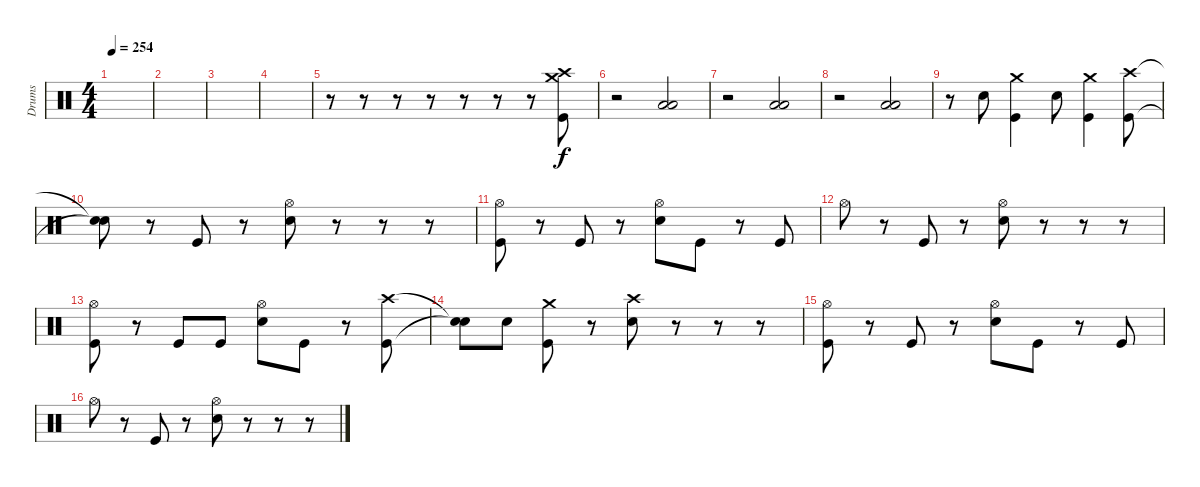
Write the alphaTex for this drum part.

\track ("Drums" "Drums") {instrument percussion}
\staff {score}
\articulation defaults
\ts (4 4)
\tempo 254
\clef neutral
\ks c
|
|
|
|
r.8 r.8 r.8 r.8 r.8 r.8 r.8 ("Crash medium (hit)" "Crash high (hit)" "Kick (hit)").8 |
r.2 ("Low Floor Tom (hit)" "Low Tom (hit)").2 |
r.2 ("Low Floor Tom (hit)" "Low Tom (hit)").2 |
r.2 ("Low Floor Tom (hit)" "Low Tom (hit)").2 |
r.8 "Electric Snare (hit)".8 ("Crash medium (hit)" "Kick (hit)").4 "Electric Snare (hit)".8 ("Crash medium (hit)" "Kick (hit)").4 ("Crash high (hit)" "Kick (hit)").8 |
("Snare (hit)"{t} "Snare (hit)"{t}).8 r.8 "Kick (hit)".8 r.8 ("Hi-Hat (open)" "Electric Snare (hit)").8 r.8 r.8 r.8 |
("Hi-Hat (open)" "Kick (hit)").8 r.8 "Kick (hit)".8 r.8 ("Hi-Hat (open)" "Electric Snare (hit)").8 "Kick (hit)".8 r.8 "Kick (hit)".8 |
"Hi-Hat (open)".8 r.8 "Kick (hit)".8 r.8 ("Hi-Hat (open)" "Electric Snare (hit)").8 r.8 r.8 r.8 |
("Hi-Hat (open)" "Kick (hit)").8 r.8 "Kick (hit)".8 "Kick (hit)".8 ("Hi-Hat (open)" "Electric Snare (hit)").8 "Kick (hit)".8 r.8 ("Crash high (hit)" "Kick (hit)").8 |
("Snare (hit)"{t} "Snare (hit)"{t}).8 "Electric Snare (hit)".8 ("Crash medium (hit)" "Kick (hit)").8 r.8 ("Crash high (hit)" "Electric Snare (hit)").8 r.8 r.8 r.8 |
("Hi-Hat (open)" "Kick (hit)").8 r.8 "Kick (hit)".8 r.8 ("Hi-Hat (open)" "Electric Snare (hit)").8 "Kick (hit)".8 r.8 "Kick (hit)".8 |
"Hi-Hat (open)".8 r.8 "Kick (hit)".8 r.8 ("Hi-Hat (open)" "Electric Snare (hit)").8 r.8 r.8 r.8
